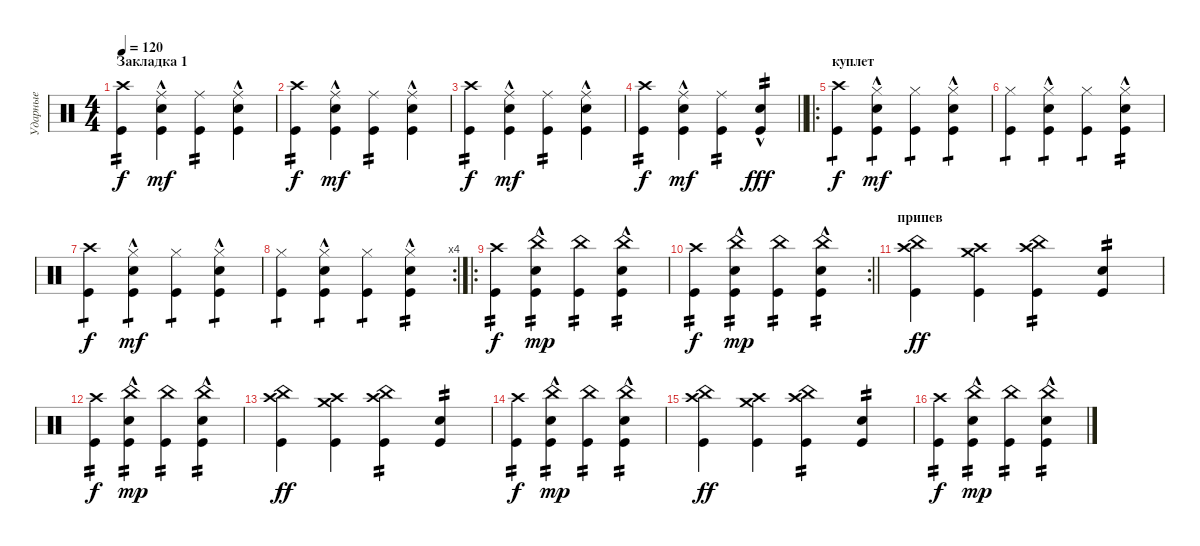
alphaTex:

\track ("Ударные" "Ударные") {instrument percussion}
\staff {score}
\articulation defaults
\ts (4 4)
\section ("" "Закладка 1")
\tempo 120
\clef neutral
\ks c
("Kick (hit)" "Crash high (hit)").4{tp 2 dy f} ("Snare (hit) 2"{hac} "Ride (middle)" "Kick (hit)").4{dy mf} ("Ride (middle)" "Kick (hit)").4{tp 2} ("Snare (hit) 2"{hac} "Ride (middle)" "Kick (hit)").4 |
("Kick (hit)" "Crash high (hit)").4{tp 2 dy f} ("Snare (hit) 2"{hac} "Ride (middle)" "Kick (hit)").4{dy mf} ("Ride (middle)" "Kick (hit)").4{tp 2} ("Snare (hit) 2"{hac} "Ride (middle)" "Kick (hit)").4 |
("Kick (hit)" "Crash high (hit)").4{tp 2 dy f} ("Snare (hit) 2"{hac} "Ride (middle)" "Kick (hit)").4{dy mf} ("Ride (middle)" "Kick (hit)").4{tp 2} ("Snare (hit) 2"{hac} "Ride (middle)" "Kick (hit)").4 |
\barLineRight lightlight
("Kick (hit)" "Crash high (hit)").4{tp 2 dy f} ("Snare (hit) 2"{hac} "Ride (middle)" "Kick (hit)").4{dy mf} ("Ride (middle)" "Kick (hit)").4{tp 2} ("Snare (hit) 2"{hac} "Kick (hit)").4{tp 2 dy fff} |
\ro
\section ("" "куплет")
("Kick (hit)" "Crash high (hit)").4{tp 1 dy f} ("Snare (hit) 2"{hac} "Hi-Hat (closed)" "Kick (hit)").4{tp 1 dy mf} ("Hi-Hat (closed)" "Kick (hit)").4{tp 1} ("Snare (hit) 2"{hac} "Hi-Hat (closed)" "Kick (hit)").4{tp 1} |
("Hi-Hat (closed)" "Kick (hit)").4{tp 1} ("Snare (hit) 2"{hac} "Hi-Hat (closed)" "Kick (hit)").4{tp 1} ("Hi-Hat (closed)" "Kick (hit)").4{tp 1} ("Snare (hit) 2"{hac} "Hi-Hat (closed)" "Kick (hit)").4{tp 2} |
("Kick (hit)" "Crash high (hit)").4{tp 1 dy f} ("Snare (hit) 2"{hac} "Hi-Hat (closed)" "Kick (hit)").4{tp 1 dy mf} ("Hi-Hat (closed)" "Kick (hit)").4{tp 1} ("Snare (hit) 2"{hac} "Hi-Hat (closed)" "Kick (hit)").4{tp 1} |
\rc 4
("Hi-Hat (closed)" "Kick (hit)").4{tp 1} ("Snare (hit) 2"{hac} "Hi-Hat (closed)" "Kick (hit)").4{tp 1} ("Hi-Hat (closed)" "Kick (hit)").4{tp 1} ("Snare (hit) 2"{hac} "Hi-Hat (closed)" "Kick (hit)").4{tp 2} |
\ro
("Kick (hit)" "Crash high (hit)").4{tp 2 dy f} ("Snare (hit) 2"{hac} "China (hit)" "Kick (hit)").4{tp 2 dy mp} ("China (hit)" "Kick (hit)").4{tp 2} ("Snare (hit) 2"{hac} "China (hit)" "Kick (hit)").4{tp 2} |
\rc 2
\barLineRight lightlight
("Kick (hit)" "Crash high (hit)").4{tp 2 dy f} ("Snare (hit) 2"{hac} "China (hit)" "Kick (hit)").4{tp 2 dy mp} ("China (hit)" "Kick (hit)").4{tp 2} ("Snare (hit) 2"{hac} "China (hit)" "Kick (hit)").4{tp 2} |
\section ("" "припев")
("Kick (hit)" "Crash high (hit)" "China (hit)").4{dy ff} ("Kick (hit)" "Crash high (hit)" "Crash medium (hit)").4 ("Kick (hit)" "Crash high (hit)" "China (hit)").4{tp 2} ("Kick (hit)" "Snare (hit) 2").4{tp 2} |
("Kick (hit)" "Crash high (hit)").4{tp 2 dy f} ("Snare (hit) 2"{hac} "China (hit)" "Kick (hit)").4{tp 2 dy mp} ("China (hit)" "Kick (hit)").4{tp 2} ("Snare (hit) 2"{hac} "China (hit)" "Kick (hit)").4{tp 2} |
("Kick (hit)" "Crash high (hit)" "China (hit)").4{dy ff} ("Kick (hit)" "Crash high (hit)" "Crash medium (hit)").4 ("Kick (hit)" "Crash high (hit)" "China (hit)").4{tp 2} ("Kick (hit)" "Snare (hit) 2").4{tp 2} |
("Kick (hit)" "Crash high (hit)").4{tp 2 dy f} ("Snare (hit) 2"{hac} "China (hit)" "Kick (hit)").4{tp 2 dy mp} ("China (hit)" "Kick (hit)").4{tp 2} ("Snare (hit) 2"{hac} "China (hit)" "Kick (hit)").4{tp 2} |
("Kick (hit)" "Crash high (hit)" "China (hit)").4{dy ff} ("Kick (hit)" "Crash high (hit)" "Crash medium (hit)").4 ("Kick (hit)" "Crash high (hit)" "China (hit)").4{tp 2} ("Kick (hit)" "Snare (hit) 2").4{tp 2} |
("Kick (hit)" "Crash high (hit)").4{tp 2 dy f} ("Snare (hit) 2"{hac} "China (hit)" "Kick (hit)").4{tp 2 dy mp} ("China (hit)" "Kick (hit)").4{tp 2} ("Snare (hit) 2"{hac} "China (hit)" "Kick (hit)").4{tp 2}
